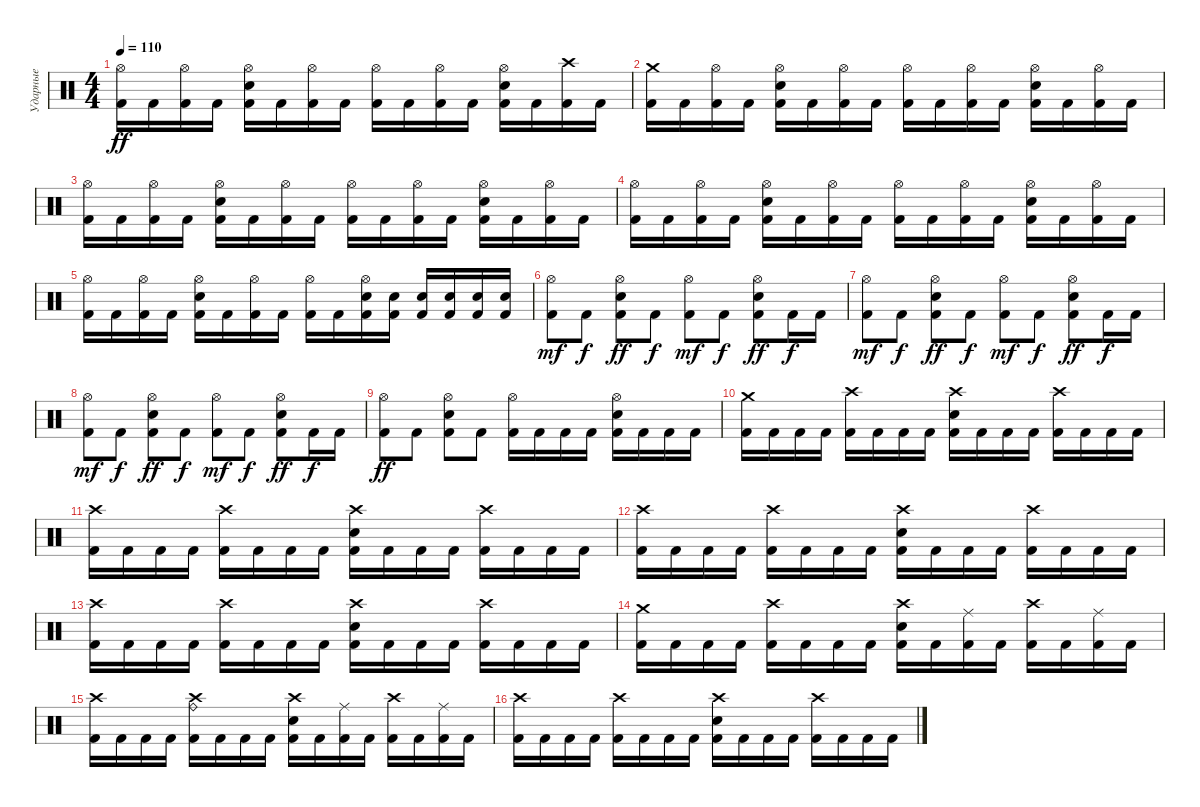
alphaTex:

\track ("Ударные" "Ударные") {instrument percussion}
\staff {score}
\articulation defaults
\ts (4 4)
\tempo 110
\clef neutral
\ks c
("Hi-Hat (open)" "Kick (hit) 2").16{dy ff} "Kick (hit) 2".16 ("Hi-Hat (open)" "Kick (hit) 2").16 "Kick (hit) 2".16 ("Hi-Hat (open)" "Electric Snare (hit)" "Kick (hit) 2").16 "Kick (hit) 2".16 ("Hi-Hat (open)" "Kick (hit) 2").16 "Kick (hit) 2".16 ("Hi-Hat (open)" "Kick (hit) 2").16 "Kick (hit) 2".16 ("Hi-Hat (open)" "Kick (hit) 2").16 "Kick (hit) 2".16 ("Hi-Hat (open)" "Electric Snare (hit)" "Kick (hit) 2").16 "Kick (hit) 2".16 ("Crash high (hit)" "Kick (hit) 2").16 "Kick (hit) 2".16 |
("Crash medium (hit)" "Kick (hit) 2").16 "Kick (hit) 2".16 ("Hi-Hat (open)" "Kick (hit) 2").16 "Kick (hit) 2".16 ("Hi-Hat (open)" "Electric Snare (hit)" "Kick (hit) 2").16 "Kick (hit) 2".16 ("Hi-Hat (open)" "Kick (hit) 2").16 "Kick (hit) 2".16 ("Hi-Hat (open)" "Kick (hit) 2").16 "Kick (hit) 2".16 ("Hi-Hat (open)" "Kick (hit) 2").16 "Kick (hit) 2".16 ("Hi-Hat (open)" "Electric Snare (hit)" "Kick (hit) 2").16 "Kick (hit) 2".16 ("Hi-Hat (open)" "Kick (hit) 2").16 "Kick (hit) 2".16 |
("Hi-Hat (open)" "Kick (hit) 2").16 "Kick (hit) 2".16 ("Hi-Hat (open)" "Kick (hit) 2").16 "Kick (hit) 2".16 ("Hi-Hat (open)" "Electric Snare (hit)" "Kick (hit) 2").16 "Kick (hit) 2".16 ("Hi-Hat (open)" "Kick (hit) 2").16 "Kick (hit) 2".16 ("Hi-Hat (open)" "Kick (hit) 2").16 "Kick (hit) 2".16 ("Hi-Hat (open)" "Kick (hit) 2").16 "Kick (hit) 2".16 ("Hi-Hat (open)" "Electric Snare (hit)" "Kick (hit) 2").16 "Kick (hit) 2".16 ("Hi-Hat (open)" "Kick (hit) 2").16 "Kick (hit) 2".16 |
("Hi-Hat (open)" "Kick (hit) 2").16 "Kick (hit) 2".16 ("Hi-Hat (open)" "Kick (hit) 2").16 "Kick (hit) 2".16 ("Hi-Hat (open)" "Electric Snare (hit)" "Kick (hit) 2").16 "Kick (hit) 2".16 ("Hi-Hat (open)" "Kick (hit) 2").16 "Kick (hit) 2".16 ("Hi-Hat (open)" "Kick (hit) 2").16 "Kick (hit) 2".16 ("Hi-Hat (open)" "Kick (hit) 2").16 "Kick (hit) 2".16 ("Hi-Hat (open)" "Electric Snare (hit)" "Kick (hit) 2").16 "Kick (hit) 2".16 ("Hi-Hat (open)" "Kick (hit) 2").16 "Kick (hit) 2".16 |
("Hi-Hat (open)" "Kick (hit) 2").16 "Kick (hit) 2".16 ("Hi-Hat (open)" "Kick (hit) 2").16 "Kick (hit) 2".16 ("Hi-Hat (open)" "Electric Snare (hit)" "Kick (hit) 2").16 "Kick (hit) 2".16 ("Hi-Hat (open)" "Kick (hit) 2").16 "Kick (hit) 2".16 ("Hi-Hat (open)" "Kick (hit) 2").16 "Kick (hit) 2".16 ("Hi-Hat (open)" "Electric Snare (hit)" "Kick (hit) 2").16 ("Electric Snare (hit)" "Kick (hit) 2").16 ("Electric Snare (hit)" "Kick (hit) 2").16 ("Electric Snare (hit)" "Kick (hit) 2").16 ("Electric Snare (hit)" "Kick (hit) 2").16 ("Electric Snare (hit)" "Kick (hit) 2").16 |
("Hi-Hat (open)" "Kick (hit) 2").8{dy mf} "Kick (hit) 2".8{dy f} ("Hi-Hat (open)" "Electric Snare (hit)" "Kick (hit) 2").8{dy ff} "Kick (hit) 2".8{dy f} ("Hi-Hat (open)" "Kick (hit) 2").8{dy mf} "Kick (hit) 2".8{dy f} ("Hi-Hat (open)" "Electric Snare (hit)" "Kick (hit) 2").8{dy ff} "Kick (hit) 2".16{dy f} "Kick (hit) 2".16 |
("Hi-Hat (open)" "Kick (hit) 2").8{dy mf} "Kick (hit) 2".8{dy f} ("Hi-Hat (open)" "Electric Snare (hit)" "Kick (hit) 2").8{dy ff} "Kick (hit) 2".8{dy f} ("Hi-Hat (open)" "Kick (hit) 2").8{dy mf} "Kick (hit) 2".8{dy f} ("Hi-Hat (open)" "Electric Snare (hit)" "Kick (hit) 2").8{dy ff} "Kick (hit) 2".16{dy f} "Kick (hit) 2".16 |
("Hi-Hat (open)" "Kick (hit) 2").8{dy mf} "Kick (hit) 2".8{dy f} ("Hi-Hat (open)" "Electric Snare (hit)" "Kick (hit) 2").8{dy ff} "Kick (hit) 2".8{dy f} ("Hi-Hat (open)" "Kick (hit) 2").8{dy mf} "Kick (hit) 2".8{dy f} ("Hi-Hat (open)" "Electric Snare (hit)" "Kick (hit) 2").8{dy ff} "Kick (hit) 2".16{dy f} "Kick (hit) 2".16 |
("Hi-Hat (open)" "Kick (hit) 2").8{dy ff} "Kick (hit) 2".8 ("Hi-Hat (open)" "Electric Snare (hit)" "Kick (hit) 2").8 "Kick (hit) 2".8 ("Hi-Hat (open)" "Kick (hit) 2").16 "Kick (hit) 2".16 "Kick (hit) 2".16 "Kick (hit) 2".16 ("Hi-Hat (open)" "Electric Snare (hit)" "Kick (hit) 2").16 "Kick (hit) 2".16 "Kick (hit) 2".16 "Kick (hit) 2".16 |
("Crash medium (hit)" "Kick (hit) 2").16 "Kick (hit) 2".16 "Kick (hit) 2".16 "Kick (hit) 2".16 ("Crash high (hit)" "Kick (hit) 2").16 "Kick (hit) 2".16 "Kick (hit) 2".16 "Kick (hit) 2".16 ("Crash high (hit)" "Electric Snare (hit)" "Kick (hit) 2").16 "Kick (hit) 2".16 "Kick (hit) 2".16 "Kick (hit) 2".16 ("Crash high (hit)" "Kick (hit) 2").16 "Kick (hit) 2".16 "Kick (hit) 2".16 "Kick (hit) 2".16 |
("Crash high (hit)" "Kick (hit) 2").16 "Kick (hit) 2".16 "Kick (hit) 2".16 "Kick (hit) 2".16 ("Crash high (hit)" "Kick (hit) 2").16 "Kick (hit) 2".16 "Kick (hit) 2".16 "Kick (hit) 2".16 ("Crash high (hit)" "Electric Snare (hit)" "Kick (hit) 2").16 "Kick (hit) 2".16 "Kick (hit) 2".16 "Kick (hit) 2".16 ("Crash high (hit)" "Kick (hit) 2").16 "Kick (hit) 2".16 "Kick (hit) 2".16 "Kick (hit) 2".16 |
("Crash high (hit)" "Kick (hit) 2").16 "Kick (hit) 2".16 "Kick (hit) 2".16 "Kick (hit) 2".16 ("Crash high (hit)" "Kick (hit) 2").16 "Kick (hit) 2".16 "Kick (hit) 2".16 "Kick (hit) 2".16 ("Crash high (hit)" "Electric Snare (hit)" "Kick (hit) 2").16 "Kick (hit) 2".16 "Kick (hit) 2".16 "Kick (hit) 2".16 ("Crash high (hit)" "Kick (hit) 2").16 "Kick (hit) 2".16 "Kick (hit) 2".16 "Kick (hit) 2".16 |
("Crash high (hit)" "Kick (hit) 2").16 "Kick (hit) 2".16 "Kick (hit) 2".16 "Kick (hit) 2".16 ("Crash high (hit)" "Kick (hit) 2").16 "Kick (hit) 2".16 "Kick (hit) 2".16 "Kick (hit) 2".16 ("Crash high (hit)" "Electric Snare (hit)" "Kick (hit) 2").16 "Kick (hit) 2".16 "Kick (hit) 2".16 "Kick (hit) 2".16 ("Crash high (hit)" "Kick (hit) 2").16 "Kick (hit) 2".16 "Kick (hit) 2".16 "Kick (hit) 2".16 |
("Crash medium (hit)" "Kick (hit) 2").16 "Kick (hit) 2".16 "Kick (hit) 2".16 "Kick (hit) 2".16 ("Crash high (hit)" "Kick (hit) 2").16 "Kick (hit) 2".16 "Kick (hit) 2".16 "Kick (hit) 2".16 ("Crash high (hit)" "Electric Snare (hit)" "Kick (hit) 2").16 "Kick (hit) 2".16 ("Ride (middle)" "Kick (hit) 2").16 "Kick (hit) 2".16 ("Crash high (hit)" "Kick (hit) 2").16 "Kick (hit) 2".16 ("Ride (middle)" "Kick (hit) 2").16 "Kick (hit) 2".16 |
("Crash high (hit)" "Kick (hit) 2").16 "Kick (hit) 2".16 "Kick (hit) 2".16 "Kick (hit) 2".16 ("Crash high (hit)" "Ride (bell)" "Kick (hit) 2").16 "Kick (hit) 2".16 "Kick (hit) 2".16 "Kick (hit) 2".16 ("Crash high (hit)" "Electric Snare (hit)" "Kick (hit) 2").16 "Kick (hit) 2".16 ("Ride (middle)" "Kick (hit) 2").16 "Kick (hit) 2".16 ("Crash high (hit)" "Kick (hit) 2").16 "Kick (hit) 2".16 ("Ride (middle)" "Kick (hit) 2").16 "Kick (hit) 2".16 |
("Crash high (hit)" "Kick (hit) 2").16 "Kick (hit) 2".16 "Kick (hit) 2".16 "Kick (hit) 2".16 ("Crash high (hit)" "Kick (hit) 2").16 "Kick (hit) 2".16 "Kick (hit) 2".16 "Kick (hit) 2".16 ("Crash high (hit)" "Electric Snare (hit)" "Kick (hit) 2").16 "Kick (hit) 2".16 "Kick (hit) 2".16 "Kick (hit) 2".16 ("Crash high (hit)" "Kick (hit) 2").16 "Kick (hit) 2".16 "Kick (hit) 2".16 "Kick (hit) 2".16
